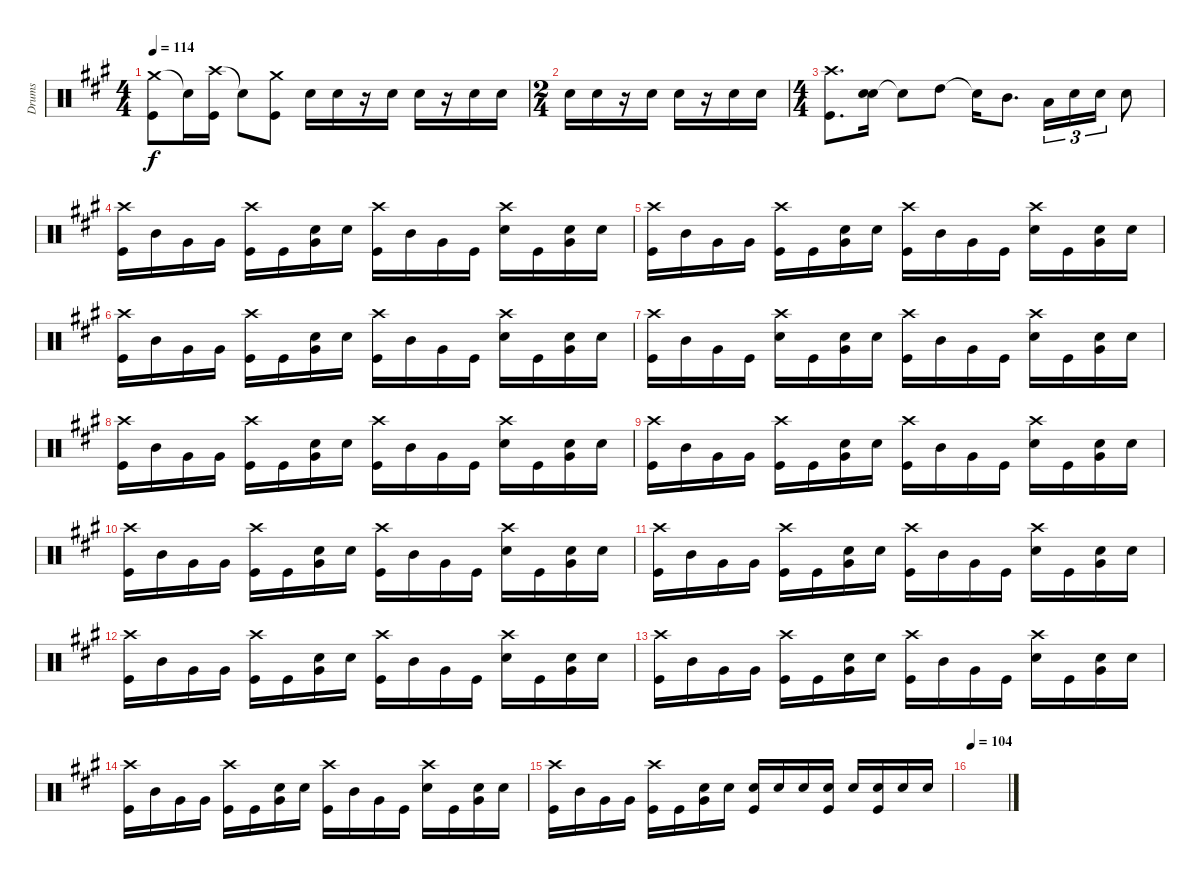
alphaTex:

\track ("Drums" "Drums") {instrument percussion}
\staff {score}
\articulation defaults
\ts (4 4)
\tempo 114
\clef neutral
\ks a
("Crash medium (hit)" "Kick (hit)").8{dy f} "Snare (hit)"{t}.16 ("Crash high (hit)" "Kick (hit)").16 "Snare (hit)"{t}.8 ("Crash medium (hit)" "Kick (hit)").8 "Electric Snare (hit)".16 "Electric Snare (hit)".16 r.16 "Electric Snare (hit)".16 "Electric Snare (hit)".16 r.16 "Electric Snare (hit)".16 "Electric Snare (hit)".16 |
\ts (2 4)
"Electric Snare (hit)".16 "Electric Snare (hit)".16 r.16 "Electric Snare (hit)".16 "Electric Snare (hit)".16 r.16 "Electric Snare (hit)".16 "Electric Snare (hit)".16 |
\ts (4 4)
("Crash high (hit)" "Kick (hit)").8{d} ("Electric Snare (hit)" "Electric Snare (hit)").16{bd 120} "Snare (hit)"{t}.8 "High Tom (hit)".8 "Snare (hit)"{t}.16 "Mid Tom (hit)".8{d} "Low Tom (hit)".16{tu (3 2)} "Electric Snare (hit)".16{tu (3 2)} "Electric Snare (hit)".16{tu (3 2)} "Electric Snare (hit)".8 |
("Crash high (hit)" "Kick (hit)").16 "Mid Tom (hit)".16 "Very Low Tom (hit)".16 "Very Low Tom (hit)".16 ("Crash high (hit)" "Kick (hit)").16 "Kick (hit)".16 ("Very Low Tom (hit)" "Electric Snare (hit)").16 "Electric Snare (hit)".16 ("Crash high (hit)" "Kick (hit)").16 "Mid Tom (hit)".16 "Very Low Tom (hit)".16 "Kick (hit)".16 ("Crash high (hit)" "Electric Snare (hit)").16 "Kick (hit)".16 ("Very Low Tom (hit)" "Electric Snare (hit)").16 "Electric Snare (hit)".16 |
("Crash high (hit)" "Kick (hit)").16 "Mid Tom (hit)".16 "Very Low Tom (hit)".16 "Very Low Tom (hit)".16 ("Crash high (hit)" "Kick (hit)").16 "Kick (hit)".16 ("Very Low Tom (hit)" "Electric Snare (hit)").16 "Electric Snare (hit)".16 ("Crash high (hit)" "Kick (hit)").16 "Mid Tom (hit)".16 "Very Low Tom (hit)".16 "Kick (hit)".16 ("Crash high (hit)" "Electric Snare (hit)").16 "Kick (hit)".16 ("Very Low Tom (hit)" "Electric Snare (hit)").16 "Electric Snare (hit)".16 |
("Crash high (hit)" "Kick (hit)").16 "Mid Tom (hit)".16 "Very Low Tom (hit)".16 "Very Low Tom (hit)".16 ("Crash high (hit)" "Kick (hit)").16 "Kick (hit)".16 ("Very Low Tom (hit)" "Electric Snare (hit)").16 "Electric Snare (hit)".16 ("Crash high (hit)" "Kick (hit)").16 "Mid Tom (hit)".16 "Very Low Tom (hit)".16 "Kick (hit)".16 ("Crash high (hit)" "Electric Snare (hit)").16 "Kick (hit)".16 ("Very Low Tom (hit)" "Electric Snare (hit)").16 "Electric Snare (hit)".16 |
("Crash high (hit)" "Kick (hit)").16 "Mid Tom (hit)".16 "Very Low Tom (hit)".16 "Kick (hit)".16 ("Crash high (hit)" "Electric Snare (hit)").16 "Kick (hit)".16 ("Very Low Tom (hit)" "Electric Snare (hit)").16 "Electric Snare (hit)".16 ("Crash high (hit)" "Kick (hit)").16 "Mid Tom (hit)".16 "Very Low Tom (hit)".16 "Kick (hit)".16 ("Crash high (hit)" "Electric Snare (hit)").16 "Kick (hit)".16 ("Very Low Tom (hit)" "Electric Snare (hit)").16 "Electric Snare (hit)".16 |
("Crash high (hit)" "Kick (hit)").16 "Mid Tom (hit)".16 "Very Low Tom (hit)".16 "Very Low Tom (hit)".16 ("Crash high (hit)" "Kick (hit)").16 "Kick (hit)".16 ("Very Low Tom (hit)" "Electric Snare (hit)").16 "Electric Snare (hit)".16 ("Crash high (hit)" "Kick (hit)").16 "Mid Tom (hit)".16 "Very Low Tom (hit)".16 "Kick (hit)".16 ("Crash high (hit)" "Electric Snare (hit)").16 "Kick (hit)".16 ("Very Low Tom (hit)" "Electric Snare (hit)").16 "Electric Snare (hit)".16 |
("Crash high (hit)" "Kick (hit)").16 "Mid Tom (hit)".16 "Very Low Tom (hit)".16 "Very Low Tom (hit)".16 ("Crash high (hit)" "Kick (hit)").16 "Kick (hit)".16 ("Very Low Tom (hit)" "Electric Snare (hit)").16 "Electric Snare (hit)".16 ("Crash high (hit)" "Kick (hit)").16 "Mid Tom (hit)".16 "Very Low Tom (hit)".16 "Kick (hit)".16 ("Crash high (hit)" "Electric Snare (hit)").16 "Kick (hit)".16 ("Very Low Tom (hit)" "Electric Snare (hit)").16 "Electric Snare (hit)".16 |
("Crash high (hit)" "Kick (hit)").16 "Mid Tom (hit)".16 "Very Low Tom (hit)".16 "Very Low Tom (hit)".16 ("Crash high (hit)" "Kick (hit)").16 "Kick (hit)".16 ("Very Low Tom (hit)" "Electric Snare (hit)").16 "Electric Snare (hit)".16 ("Crash high (hit)" "Kick (hit)").16 "Mid Tom (hit)".16 "Very Low Tom (hit)".16 "Kick (hit)".16 ("Crash high (hit)" "Electric Snare (hit)").16 "Kick (hit)".16 ("Very Low Tom (hit)" "Electric Snare (hit)").16 "Electric Snare (hit)".16 |
("Crash high (hit)" "Kick (hit)").16 "Mid Tom (hit)".16 "Very Low Tom (hit)".16 "Very Low Tom (hit)".16 ("Crash high (hit)" "Kick (hit)").16 "Kick (hit)".16 ("Very Low Tom (hit)" "Electric Snare (hit)").16 "Electric Snare (hit)".16 ("Crash high (hit)" "Kick (hit)").16 "Mid Tom (hit)".16 "Very Low Tom (hit)".16 "Kick (hit)".16 ("Crash high (hit)" "Electric Snare (hit)").16 "Kick (hit)".16 ("Very Low Tom (hit)" "Electric Snare (hit)").16 "Electric Snare (hit)".16 |
("Crash high (hit)" "Kick (hit)").16 "Mid Tom (hit)".16 "Very Low Tom (hit)".16 "Very Low Tom (hit)".16 ("Crash high (hit)" "Kick (hit)").16 "Kick (hit)".16 ("Very Low Tom (hit)" "Electric Snare (hit)").16 "Electric Snare (hit)".16 ("Crash high (hit)" "Kick (hit)").16 "Mid Tom (hit)".16 "Very Low Tom (hit)".16 "Kick (hit)".16 ("Crash high (hit)" "Electric Snare (hit)").16 "Kick (hit)".16 ("Very Low Tom (hit)" "Electric Snare (hit)").16 "Electric Snare (hit)".16 |
("Crash high (hit)" "Kick (hit)").16 "Mid Tom (hit)".16 "Very Low Tom (hit)".16 "Very Low Tom (hit)".16 ("Crash high (hit)" "Kick (hit)").16 "Kick (hit)".16 ("Very Low Tom (hit)" "Electric Snare (hit)").16 "Electric Snare (hit)".16 ("Crash high (hit)" "Kick (hit)").16 "Mid Tom (hit)".16 "Very Low Tom (hit)".16 "Kick (hit)".16 ("Crash high (hit)" "Electric Snare (hit)").16 "Kick (hit)".16 ("Very Low Tom (hit)" "Electric Snare (hit)").16 "Electric Snare (hit)".16 |
("Crash high (hit)" "Kick (hit)").16 "Mid Tom (hit)".16 "Very Low Tom (hit)".16 "Very Low Tom (hit)".16 ("Crash high (hit)" "Kick (hit)").16 "Kick (hit)".16 ("Very Low Tom (hit)" "Electric Snare (hit)").16 "Electric Snare (hit)".16 ("Crash high (hit)" "Kick (hit)").16 "Mid Tom (hit)".16 "Very Low Tom (hit)".16 "Kick (hit)".16 ("Crash high (hit)" "Electric Snare (hit)").16 "Kick (hit)".16 ("Very Low Tom (hit)" "Electric Snare (hit)").16 "Electric Snare (hit)".16 |
("Crash high (hit)" "Kick (hit)").16 "Mid Tom (hit)".16 "Very Low Tom (hit)".16 "Very Low Tom (hit)".16 ("Crash high (hit)" "Kick (hit)").16 "Kick (hit)".16 ("Very Low Tom (hit)" "Electric Snare (hit)").16 "Electric Snare (hit)".16 ("Electric Snare (hit)" "Kick (hit)").16 "Electric Snare (hit)".16 "Electric Snare (hit)".16 ("Electric Snare (hit)" "Kick (hit)").16 "Electric Snare (hit)".16 ("Electric Snare (hit)" "Kick (hit)").16 "Electric Snare (hit)".16 "Electric Snare (hit)".16 |
\tempo 104
